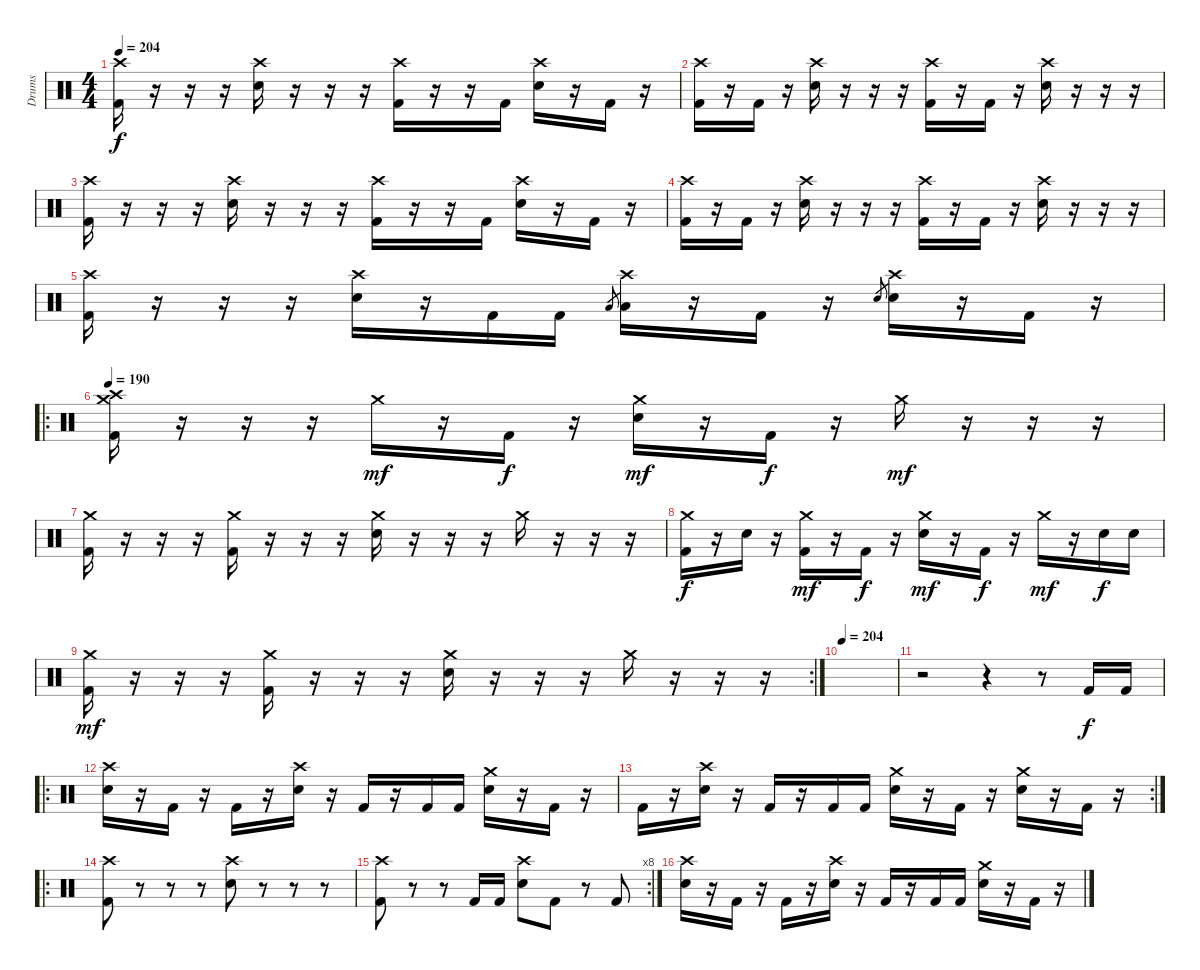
\track ("Drums" "Drums") {instrument percussion}
\staff {score}
\articulation defaults
\ts (4 4)
\tempo 204
\clef neutral
\ks c
("Crash high (hit)" "Kick (hit) 2").16{dy f} r.16 r.16 r.16 ("Crash high (hit)" "Snare (hit) 2").16 r.16 r.16 r.16 ("Crash high (hit)" "Kick (hit) 2").16 r.16 r.16 "Kick (hit) 2".16 ("Crash high (hit)" "Snare (hit) 2").16 r.16 "Kick (hit) 2".16 r.16 |
("Crash high (hit)" "Kick (hit) 2").16 r.16 "Kick (hit) 2".16 r.16 ("Crash high (hit)" "Snare (hit) 2").16 r.16 r.16 r.16 ("Crash high (hit)" "Kick (hit) 2").16 r.16 "Kick (hit) 2".16 r.16 ("Crash high (hit)" "Snare (hit) 2").16 r.16 r.16 r.16 |
("Crash high (hit)" "Kick (hit) 2").16 r.16 r.16 r.16 ("Crash high (hit)" "Snare (hit) 2").16 r.16 r.16 r.16 ("Crash high (hit)" "Kick (hit) 2").16 r.16 r.16 "Kick (hit) 2".16 ("Crash high (hit)" "Snare (hit) 2").16 r.16 "Kick (hit) 2".16 r.16 |
("Crash high (hit)" "Kick (hit) 2").16 r.16 "Kick (hit) 2".16 r.16 ("Crash high (hit)" "Snare (hit) 2").16 r.16 r.16 r.16 ("Crash high (hit)" "Kick (hit) 2").16 r.16 "Kick (hit) 2".16 r.16 ("Crash high (hit)" "Snare (hit) 2").16 r.16 r.16 r.16 |
("Crash high (hit)" "Kick (hit) 2").16 r.16 r.16 r.16 ("Crash high (hit)" "Snare (hit) 2").16 r.16 "Kick (hit) 2".16 "Kick (hit) 2".16 "Low Tom (hit)".8{gr} ("Crash high (hit)" "Low Tom (hit)").16 r.16 "Kick (hit) 2".16 r.16 "Snare (hit) 2".8{gr} ("Crash high (hit)" "Snare (hit) 2").16 r.16 "Kick (hit) 2".16 r.16 |
\ro
\tempo 190
("Crash high (hit)" "Crash medium (hit)" "Kick (hit) 2").16 r.16 r.16 r.16 "Crash medium (hit)".16{dy mf} r.16 "Kick (hit) 2".16{dy f} r.16 ("Crash medium (hit)" "Snare (hit) 2").16{dy mf} r.16 "Kick (hit) 2".16{dy f} r.16 "Crash medium (hit)".16{dy mf} r.16 r.16 r.16 |
("Crash medium (hit)" "Kick (hit) 2").16 r.16 r.16 r.16 ("Crash medium (hit)" "Kick (hit) 2").16 r.16 r.16 r.16 ("Crash medium (hit)" "Snare (hit) 2").16 r.16 r.16 r.16 "Crash medium (hit)".16 r.16 r.16 r.16 |
("Crash medium (hit)" "Kick (hit) 2").16{dy f} r.16 "Snare (hit) 2".16 r.16 ("Crash medium (hit)" "Kick (hit) 2").16{dy mf} r.16 "Kick (hit) 2".16{dy f} r.16 ("Crash medium (hit)" "Snare (hit) 2").16{dy mf} r.16 "Kick (hit) 2".16{dy f} r.16 "Crash medium (hit)".16{dy mf} r.16 "Snare (hit) 2".16{dy f} "Snare (hit) 2".16 |
\rc 2
("Crash medium (hit)" "Kick (hit) 2").16{dy mf} r.16 r.16 r.16 ("Crash medium (hit)" "Kick (hit) 2").16 r.16 r.16 r.16 ("Crash medium (hit)" "Snare (hit) 2").16 r.16 r.16 r.16 "Crash medium (hit)".16 r.16 r.16 r.16 |
\tempo 204
|
r.2 r.4 r.8 "Kick (hit) 2".16{dy f} "Kick (hit) 2".16 |
\ro
("Crash high (hit)" "Snare (hit) 2").16 r.16 "Kick (hit) 2".16 r.16 "Kick (hit) 2".16 r.16 ("Crash high (hit)" "Snare (hit) 2").16 r.16 "Kick (hit) 2".16 r.16 "Kick (hit) 2".16 "Kick (hit) 2".16 ("Crash medium (hit)" "Snare (hit) 2").16 r.16 "Kick (hit) 2".16 r.16 |
\rc 2 "Kick (hit) 2".16
r.16 ("Crash high (hit)" "Snare (hit) 2").16 r.16 "Kick (hit) 2".16 r.16 "Kick (hit) 2".16 "Kick (hit) 2".16 ("Crash medium (hit)" "Snare (hit) 2").16 r.16 "Kick (hit) 2".16 r.16 ("Crash medium (hit)" "Snare (hit) 2").16 r.16 "Kick (hit) 2".16 r.16 |
\ro
("Crash high (hit)" "Kick (hit) 2").8 r.8 r.8 r.8 ("Crash high (hit)" "Snare (hit) 2").8 r.8 r.8 r.8 |
\rc 8
("Crash high (hit)" "Kick (hit) 2").8 r.8 r.8 "Kick (hit) 2".16 "Kick (hit) 2".16 ("Crash high (hit)" "Snare (hit) 2").8 "Kick (hit) 2".8 r.8 "Kick (hit) 2".8 |
("Crash high (hit)" "Snare (hit) 2").16 r.16 "Kick (hit) 2".16 r.16 "Kick (hit) 2".16 r.16 ("Crash high (hit)" "Snare (hit) 2").16 r.16 "Kick (hit) 2".16 r.16 "Kick (hit) 2".16 "Kick (hit) 2".16 ("Crash medium (hit)" "Snare (hit) 2").16 r.16 "Kick (hit) 2".16 r.16
